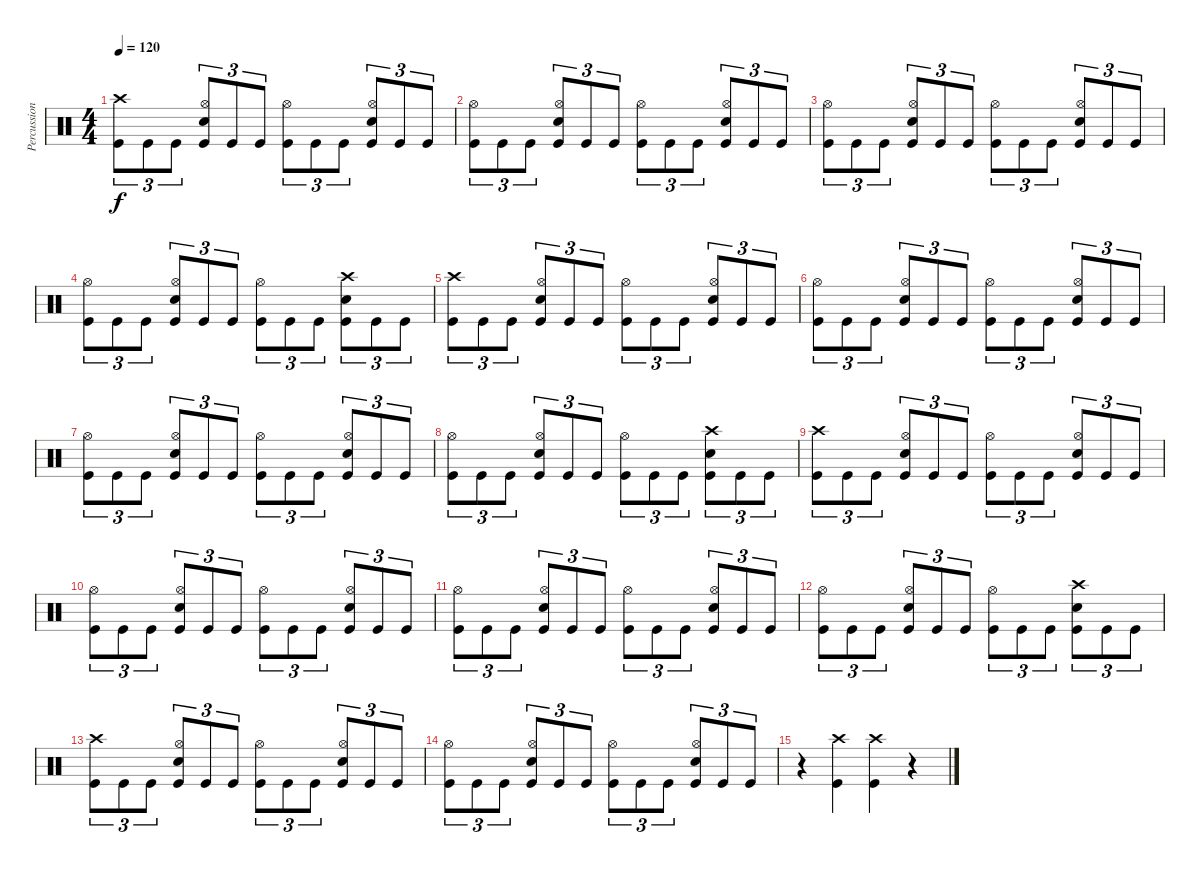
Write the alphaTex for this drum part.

\track ("Percussion" "Percussion") {instrument percussion}
\staff {score}
\articulation defaults
\ts (4 4)
\tempo 120
\clef neutral
\ks c
("Crash high (hit)" "Kick (hit)").8{tu (3 2) dy f} "Kick (hit)".8{tu (3 2)} "Kick (hit)".8{tu (3 2)} ("Hi-Hat (open)" "Snare (hit) 2" "Kick (hit)").8{tu (3 2)} "Kick (hit)".8{tu (3 2)} "Kick (hit)".8{tu (3 2)} ("Hi-Hat (open)" "Kick (hit)").8{tu (3 2)} "Kick (hit)".8{tu (3 2)} "Kick (hit)".8{tu (3 2)} ("Hi-Hat (open)" "Snare (hit) 2" "Kick (hit)").8{tu (3 2)} "Kick (hit)".8{tu (3 2)} "Kick (hit)".8{tu (3 2)} |
("Hi-Hat (open)" "Kick (hit)").8{tu (3 2)} "Kick (hit)".8{tu (3 2)} "Kick (hit)".8{tu (3 2)} ("Hi-Hat (open)" "Snare (hit) 2" "Kick (hit)").8{tu (3 2)} "Kick (hit)".8{tu (3 2)} "Kick (hit)".8{tu (3 2)} ("Hi-Hat (open)" "Kick (hit)").8{tu (3 2)} "Kick (hit)".8{tu (3 2)} "Kick (hit)".8{tu (3 2)} ("Hi-Hat (open)" "Snare (hit) 2" "Kick (hit)").8{tu (3 2)} "Kick (hit)".8{tu (3 2)} "Kick (hit)".8{tu (3 2)} |
("Hi-Hat (open)" "Kick (hit)").8{tu (3 2)} "Kick (hit)".8{tu (3 2)} "Kick (hit)".8{tu (3 2)} ("Hi-Hat (open)" "Snare (hit) 2" "Kick (hit)").8{tu (3 2)} "Kick (hit)".8{tu (3 2)} "Kick (hit)".8{tu (3 2)} ("Hi-Hat (open)" "Kick (hit)").8{tu (3 2)} "Kick (hit)".8{tu (3 2)} "Kick (hit)".8{tu (3 2)} ("Hi-Hat (open)" "Snare (hit) 2" "Kick (hit)").8{tu (3 2)} "Kick (hit)".8{tu (3 2)} "Kick (hit)".8{tu (3 2)} |
("Hi-Hat (open)" "Kick (hit)").8{tu (3 2)} "Kick (hit)".8{tu (3 2)} "Kick (hit)".8{tu (3 2)} ("Hi-Hat (open)" "Snare (hit) 2" "Kick (hit)").8{tu (3 2)} "Kick (hit)".8{tu (3 2)} "Kick (hit)".8{tu (3 2)} ("Hi-Hat (open)" "Kick (hit)").8{tu (3 2)} "Kick (hit)".8{tu (3 2)} "Kick (hit)".8{tu (3 2)} ("Crash high (hit)" "Snare (hit) 2" "Kick (hit)").8{tu (3 2)} "Kick (hit)".8{tu (3 2)} "Kick (hit)".8{tu (3 2)} |
("Crash high (hit)" "Kick (hit)").8{tu (3 2)} "Kick (hit)".8{tu (3 2)} "Kick (hit)".8{tu (3 2)} ("Hi-Hat (open)" "Snare (hit) 2" "Kick (hit)").8{tu (3 2)} "Kick (hit)".8{tu (3 2)} "Kick (hit)".8{tu (3 2)} ("Hi-Hat (open)" "Kick (hit)").8{tu (3 2)} "Kick (hit)".8{tu (3 2)} "Kick (hit)".8{tu (3 2)} ("Hi-Hat (open)" "Snare (hit) 2" "Kick (hit)").8{tu (3 2)} "Kick (hit)".8{tu (3 2)} "Kick (hit)".8{tu (3 2)} |
("Hi-Hat (open)" "Kick (hit)").8{tu (3 2)} "Kick (hit)".8{tu (3 2)} "Kick (hit)".8{tu (3 2)} ("Hi-Hat (open)" "Snare (hit) 2" "Kick (hit)").8{tu (3 2)} "Kick (hit)".8{tu (3 2)} "Kick (hit)".8{tu (3 2)} ("Hi-Hat (open)" "Kick (hit)").8{tu (3 2)} "Kick (hit)".8{tu (3 2)} "Kick (hit)".8{tu (3 2)} ("Hi-Hat (open)" "Snare (hit) 2" "Kick (hit)").8{tu (3 2)} "Kick (hit)".8{tu (3 2)} "Kick (hit)".8{tu (3 2)} |
("Hi-Hat (open)" "Kick (hit)").8{tu (3 2)} "Kick (hit)".8{tu (3 2)} "Kick (hit)".8{tu (3 2)} ("Hi-Hat (open)" "Snare (hit) 2" "Kick (hit)").8{tu (3 2)} "Kick (hit)".8{tu (3 2)} "Kick (hit)".8{tu (3 2)} ("Hi-Hat (open)" "Kick (hit)").8{tu (3 2)} "Kick (hit)".8{tu (3 2)} "Kick (hit)".8{tu (3 2)} ("Hi-Hat (open)" "Snare (hit) 2" "Kick (hit)").8{tu (3 2)} "Kick (hit)".8{tu (3 2)} "Kick (hit)".8{tu (3 2)} |
("Hi-Hat (open)" "Kick (hit)").8{tu (3 2)} "Kick (hit)".8{tu (3 2)} "Kick (hit)".8{tu (3 2)} ("Hi-Hat (open)" "Snare (hit) 2" "Kick (hit)").8{tu (3 2)} "Kick (hit)".8{tu (3 2)} "Kick (hit)".8{tu (3 2)} ("Hi-Hat (open)" "Kick (hit)").8{tu (3 2)} "Kick (hit)".8{tu (3 2)} "Kick (hit)".8{tu (3 2)} ("Crash high (hit)" "Snare (hit) 2" "Kick (hit)").8{tu (3 2)} "Kick (hit)".8{tu (3 2)} "Kick (hit)".8{tu (3 2)} |
("Crash high (hit)" "Kick (hit)").8{tu (3 2)} "Kick (hit)".8{tu (3 2)} "Kick (hit)".8{tu (3 2)} ("Hi-Hat (open)" "Snare (hit) 2" "Kick (hit)").8{tu (3 2)} "Kick (hit)".8{tu (3 2)} "Kick (hit)".8{tu (3 2)} ("Hi-Hat (open)" "Kick (hit)").8{tu (3 2)} "Kick (hit)".8{tu (3 2)} "Kick (hit)".8{tu (3 2)} ("Hi-Hat (open)" "Snare (hit) 2" "Kick (hit)").8{tu (3 2)} "Kick (hit)".8{tu (3 2)} "Kick (hit)".8{tu (3 2)} |
("Hi-Hat (open)" "Kick (hit)").8{tu (3 2)} "Kick (hit)".8{tu (3 2)} "Kick (hit)".8{tu (3 2)} ("Hi-Hat (open)" "Snare (hit) 2" "Kick (hit)").8{tu (3 2)} "Kick (hit)".8{tu (3 2)} "Kick (hit)".8{tu (3 2)} ("Hi-Hat (open)" "Kick (hit)").8{tu (3 2)} "Kick (hit)".8{tu (3 2)} "Kick (hit)".8{tu (3 2)} ("Hi-Hat (open)" "Snare (hit) 2" "Kick (hit)").8{tu (3 2)} "Kick (hit)".8{tu (3 2)} "Kick (hit)".8{tu (3 2)} |
("Hi-Hat (open)" "Kick (hit)").8{tu (3 2)} "Kick (hit)".8{tu (3 2)} "Kick (hit)".8{tu (3 2)} ("Hi-Hat (open)" "Snare (hit) 2" "Kick (hit)").8{tu (3 2)} "Kick (hit)".8{tu (3 2)} "Kick (hit)".8{tu (3 2)} ("Hi-Hat (open)" "Kick (hit)").8{tu (3 2)} "Kick (hit)".8{tu (3 2)} "Kick (hit)".8{tu (3 2)} ("Hi-Hat (open)" "Snare (hit) 2" "Kick (hit)").8{tu (3 2)} "Kick (hit)".8{tu (3 2)} "Kick (hit)".8{tu (3 2)} |
("Hi-Hat (open)" "Kick (hit)").8{tu (3 2)} "Kick (hit)".8{tu (3 2)} "Kick (hit)".8{tu (3 2)} ("Hi-Hat (open)" "Snare (hit) 2" "Kick (hit)").8{tu (3 2)} "Kick (hit)".8{tu (3 2)} "Kick (hit)".8{tu (3 2)} ("Hi-Hat (open)" "Kick (hit)").8{tu (3 2)} "Kick (hit)".8{tu (3 2)} "Kick (hit)".8{tu (3 2)} ("Crash high (hit)" "Snare (hit) 2" "Kick (hit)").8{tu (3 2)} "Kick (hit)".8{tu (3 2)} "Kick (hit)".8{tu (3 2)} |
("Crash high (hit)" "Kick (hit)").8{tu (3 2)} "Kick (hit)".8{tu (3 2)} "Kick (hit)".8{tu (3 2)} ("Hi-Hat (open)" "Snare (hit) 2" "Kick (hit)").8{tu (3 2)} "Kick (hit)".8{tu (3 2)} "Kick (hit)".8{tu (3 2)} ("Hi-Hat (open)" "Kick (hit)").8{tu (3 2)} "Kick (hit)".8{tu (3 2)} "Kick (hit)".8{tu (3 2)} ("Hi-Hat (open)" "Snare (hit) 2" "Kick (hit)").8{tu (3 2)} "Kick (hit)".8{tu (3 2)} "Kick (hit)".8{tu (3 2)} |
("Hi-Hat (open)" "Kick (hit)").8{tu (3 2)} "Kick (hit)".8{tu (3 2)} "Kick (hit)".8{tu (3 2)} ("Hi-Hat (open)" "Snare (hit) 2" "Kick (hit)").8{tu (3 2)} "Kick (hit)".8{tu (3 2)} "Kick (hit)".8{tu (3 2)} ("Hi-Hat (open)" "Kick (hit)").8{tu (3 2)} "Kick (hit)".8{tu (3 2)} "Kick (hit)".8{tu (3 2)} ("Hi-Hat (open)" "Snare (hit) 2" "Kick (hit)").8{tu (3 2)} "Kick (hit)".8{tu (3 2)} "Kick (hit)".8{tu (3 2)} |
r.4 ("Crash high (hit)" "Kick (hit)").4 ("Crash high (hit)" "Kick (hit)").4 r.4
